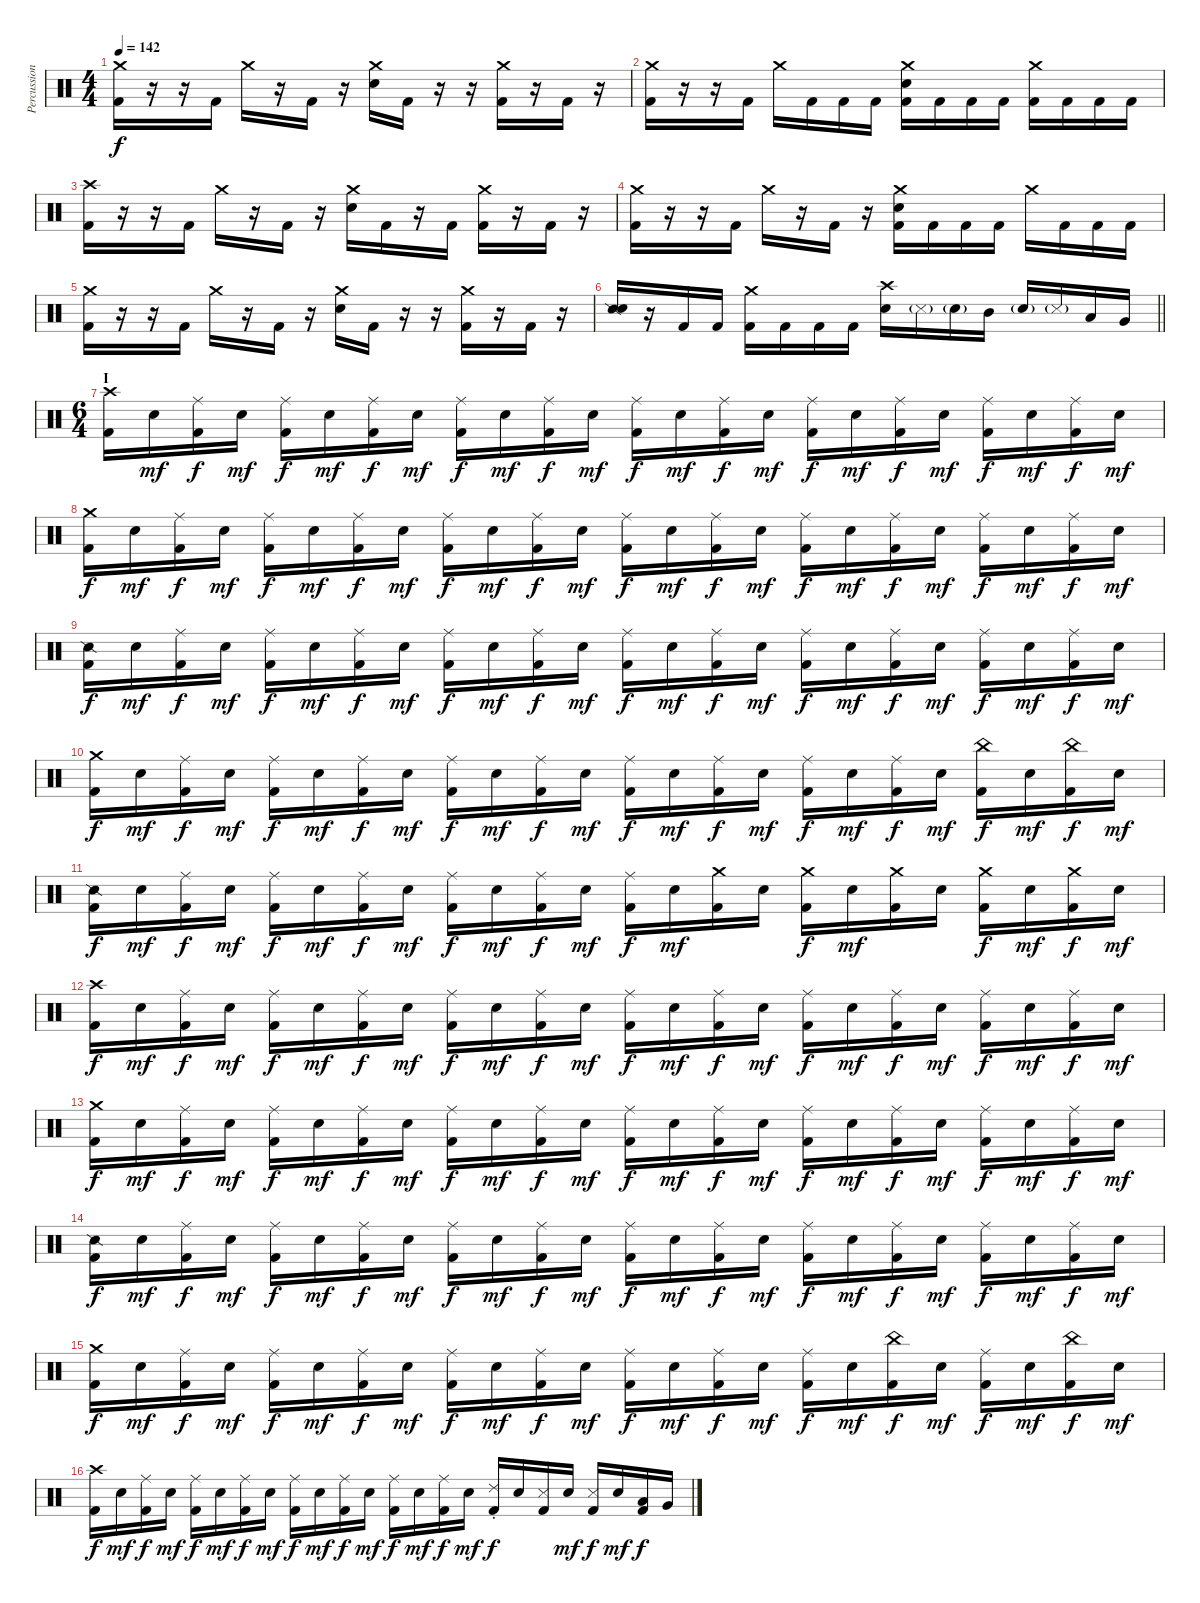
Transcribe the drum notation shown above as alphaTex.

\track ("Percussion" "Percussion") {instrument percussion}
\staff {score}
\articulation defaults
\ts (4 4)
\tempo 142
\clef neutral
\ks c
("Crash medium (hit)" "Kick (hit) 2").16{dy f} r.16 r.16 "Kick (hit) 2".16 "Crash medium (hit)".16 r.16 "Kick (hit) 2".16 r.16 ("Crash medium (hit)" "Snare (hit) 2").16 "Kick (hit) 2".16 r.16 r.16 ("Crash medium (hit)" "Kick (hit) 2").16 r.16 "Kick (hit) 2".16 r.16 |
("Crash medium (hit)" "Kick (hit) 2").16 r.16 r.16 "Kick (hit) 2".16 "Crash medium (hit)".16 "Kick (hit) 2".16 "Kick (hit) 2".16 "Kick (hit) 2".16 ("Crash medium (hit)" "Snare (hit) 2" "Kick (hit) 2").16 "Kick (hit) 2".16 "Kick (hit) 2".16 "Kick (hit) 2".16 ("Crash medium (hit)" "Kick (hit) 2").16 "Kick (hit) 2".16 "Kick (hit) 2".16 "Kick (hit) 2".16 |
("Crash high (hit)" "Kick (hit) 2").16 r.16 r.16 "Kick (hit) 2".16 "Crash medium (hit)".16 r.16 "Kick (hit) 2".16 r.16 ("Crash medium (hit)" "Snare (hit) 2").16 "Kick (hit) 2".16 r.16 "Kick (hit) 2".16 ("Crash medium (hit)" "Kick (hit) 2").16 r.16 "Kick (hit) 2".16 r.16 |
("Crash medium (hit)" "Kick (hit) 2").16 r.16 r.16 "Kick (hit) 2".16 "Crash medium (hit)".16 r.16 "Kick (hit) 2".16 r.16 ("Crash medium (hit)" "Snare (hit) 2" "Kick (hit) 2").16 "Kick (hit) 2".16 "Kick (hit) 2".16 "Kick (hit) 2".16 "Crash medium (hit)".16 "Kick (hit) 2".16 "Kick (hit) 2".16 "Kick (hit) 2".16 |
("Crash medium (hit)" "Kick (hit) 2").16 r.16 r.16 "Kick (hit) 2".16 "Crash medium (hit)".16 r.16 "Kick (hit) 2".16 r.16 ("Crash medium (hit)" "Snare (hit) 2").16 "Kick (hit) 2".16 r.16 r.16 ("Crash medium (hit)" "Kick (hit) 2").16 r.16 "Kick (hit) 2".16 r.16 |
\barLineRight lightlight
("Snare (side stick) 2" "Snare (hit) 2").16 r.16 "Kick (hit) 2".16 "Kick (hit) 2".16 ("Crash medium (hit)" "Kick (hit) 2").16 "Kick (hit) 2".16 "Kick (hit) 2".16 "Kick (hit) 2".16 ("Crash high (hit)" "Snare (hit) 2").16 "Metronome (hit)"{g}.16 "Snare (hit) 2"{g}.16 "Mid Tom (hit)".16 "Snare (hit) 2"{g}.16 "Metronome (hit)"{g}.16 "Low Tom (hit)".16 "Very Low Tom (hit)".16 |
\ts (6 4)
\section ("" "I")
("Crash high (hit)" "Kick (hit) 2").16 "Snare (hit) 2".16{dy mf} ("Ride (middle)" "Kick (hit) 2").16{dy f} "Snare (hit) 2".16{dy mf} ("Ride (middle)" "Kick (hit) 2").16{dy f} "Snare (hit) 2".16{dy mf} ("Ride (middle)" "Kick (hit) 2").16{dy f} "Snare (hit) 2".16{dy mf} ("Ride (middle)" "Kick (hit) 2").16{dy f} "Snare (hit) 2".16{dy mf} ("Ride (middle)" "Kick (hit) 2").16{dy f} "Snare (hit) 2".16{dy mf} ("Ride (middle)" "Kick (hit) 2").16{dy f} "Snare (hit) 2".16{dy mf} ("Ride (middle)" "Kick (hit) 2").16{dy f} "Snare (hit) 2".16{dy mf} ("Ride (middle)" "Kick (hit) 2").16{dy f} "Snare (hit) 2".16{dy mf} ("Ride (middle)" "Kick (hit) 2").16{dy f} "Snare (hit) 2".16{dy mf} ("Ride (middle)" "Kick (hit) 2").16{dy f} "Snare (hit) 2".16{dy mf} ("Ride (middle)" "Kick (hit) 2").16{dy f} "Snare (hit) 2".16{dy mf} |
("Crash medium (hit)" "Kick (hit) 2").16{dy f} "Snare (hit) 2".16{dy mf} ("Ride (middle)" "Kick (hit) 2").16{dy f} "Snare (hit) 2".16{dy mf} ("Ride (middle)" "Kick (hit) 2").16{dy f} "Snare (hit) 2".16{dy mf} ("Ride (middle)" "Kick (hit) 2").16{dy f} "Snare (hit) 2".16{dy mf} ("Ride (middle)" "Kick (hit) 2").16{dy f} "Snare (hit) 2".16{dy mf} ("Ride (middle)" "Kick (hit) 2").16{dy f} "Snare (hit) 2".16{dy mf} ("Ride (middle)" "Kick (hit) 2").16{dy f} "Snare (hit) 2".16{dy mf} ("Ride (middle)" "Kick (hit) 2").16{dy f} "Snare (hit) 2".16{dy mf} ("Ride (middle)" "Kick (hit) 2").16{dy f} "Snare (hit) 2".16{dy mf} ("Ride (middle)" "Kick (hit) 2").16{dy f} "Snare (hit) 2".16{dy mf} ("Ride (middle)" "Kick (hit) 2").16{dy f} "Snare (hit) 2".16{dy mf} ("Ride (middle)" "Kick (hit) 2").16{dy f} "Snare (hit) 2".16{dy mf} |
("Snare (side stick) 2" "Kick (hit) 2").16{dy f} "Snare (hit) 2".16{dy mf} ("Ride (middle)" "Kick (hit) 2").16{dy f} "Snare (hit) 2".16{dy mf} ("Ride (middle)" "Kick (hit) 2").16{dy f} "Snare (hit) 2".16{dy mf} ("Ride (middle)" "Kick (hit) 2").16{dy f} "Snare (hit) 2".16{dy mf} ("Ride (middle)" "Kick (hit) 2").16{dy f} "Snare (hit) 2".16{dy mf} ("Ride (middle)" "Kick (hit) 2").16{dy f} "Snare (hit) 2".16{dy mf} ("Ride (middle)" "Kick (hit) 2").16{dy f} "Snare (hit) 2".16{dy mf} ("Ride (middle)" "Kick (hit) 2").16{dy f} "Snare (hit) 2".16{dy mf} ("Ride (middle)" "Kick (hit) 2").16{dy f} "Snare (hit) 2".16{dy mf} ("Ride (middle)" "Kick (hit) 2").16{dy f} "Snare (hit) 2".16{dy mf} ("Ride (middle)" "Kick (hit) 2").16{dy f} "Snare (hit) 2".16{dy mf} ("Ride (middle)" "Kick (hit) 2").16{dy f} "Snare (hit) 2".16{dy mf} |
("Crash medium (hit)" "Kick (hit) 2").16{dy f} "Snare (hit) 2".16{dy mf} ("Ride (middle)" "Kick (hit) 2").16{dy f} "Snare (hit) 2".16{dy mf} ("Ride (middle)" "Kick (hit) 2").16{dy f} "Snare (hit) 2".16{dy mf} ("Ride (middle)" "Kick (hit) 2").16{dy f} "Snare (hit) 2".16{dy mf} ("Ride (middle)" "Kick (hit) 2").16{dy f} "Snare (hit) 2".16{dy mf} ("Ride (middle)" "Kick (hit) 2").16{dy f} "Snare (hit) 2".16{dy mf} ("Ride (middle)" "Kick (hit) 2").16{dy f} "Snare (hit) 2".16{dy mf} ("Ride (middle)" "Kick (hit) 2").16{dy f} "Snare (hit) 2".16{dy mf} ("Ride (middle)" "Kick (hit) 2").16{dy f} "Snare (hit) 2".16{dy mf} ("Ride (middle)" "Kick (hit) 2").16{dy f} "Snare (hit) 2".16{dy mf} ("China (hit)" "Kick (hit) 2").16{dy f} "Snare (hit) 2".16{dy mf} ("China (hit)" "Kick (hit) 2").16{dy f} "Snare (hit) 2".16{dy mf} |
("Snare (side stick) 2" "Kick (hit) 2").16{dy f} "Snare (hit) 2".16{dy mf} ("Ride (middle)" "Kick (hit) 2").16{dy f} "Snare (hit) 2".16{dy mf} ("Ride (middle)" "Kick (hit) 2").16{dy f} "Snare (hit) 2".16{dy mf} ("Ride (middle)" "Kick (hit) 2").16{dy f} "Snare (hit) 2".16{dy mf} ("Ride (middle)" "Kick (hit) 2").16{dy f} "Snare (hit) 2".16{dy mf} ("Ride (middle)" "Kick (hit) 2").16{dy f} "Snare (hit) 2".16{dy mf} ("Ride (middle)" "Kick (hit) 2").16{dy f} "Snare (hit) 2".16{dy mf} ("Crash medium (hit)" "Kick (hit) 2").16 "Snare (hit) 2".16 ("Crash medium (hit)" "Kick (hit) 2").16{dy f} "Snare (hit) 2".16{dy mf} ("Crash medium (hit)" "Kick (hit) 2").16 "Snare (hit) 2".16 ("Crash medium (hit)" "Kick (hit) 2").16{dy f} "Snare (hit) 2".16{dy mf} ("Crash medium (hit)" "Kick (hit) 2").16{dy f} "Snare (hit) 2".16{dy mf} |
("Crash high (hit)" "Kick (hit) 2").16{dy f} "Snare (hit) 2".16{dy mf} ("Ride (middle)" "Kick (hit) 2").16{dy f} "Snare (hit) 2".16{dy mf} ("Ride (middle)" "Kick (hit) 2").16{dy f} "Snare (hit) 2".16{dy mf} ("Ride (middle)" "Kick (hit) 2").16{dy f} "Snare (hit) 2".16{dy mf} ("Ride (middle)" "Kick (hit) 2").16{dy f} "Snare (hit) 2".16{dy mf} ("Ride (middle)" "Kick (hit) 2").16{dy f} "Snare (hit) 2".16{dy mf} ("Ride (middle)" "Kick (hit) 2").16{dy f} "Snare (hit) 2".16{dy mf} ("Ride (middle)" "Kick (hit) 2").16{dy f} "Snare (hit) 2".16{dy mf} ("Ride (middle)" "Kick (hit) 2").16{dy f} "Snare (hit) 2".16{dy mf} ("Ride (middle)" "Kick (hit) 2").16{dy f} "Snare (hit) 2".16{dy mf} ("Ride (middle)" "Kick (hit) 2").16{dy f} "Snare (hit) 2".16{dy mf} ("Ride (middle)" "Kick (hit) 2").16{dy f} "Snare (hit) 2".16{dy mf} |
("Crash medium (hit)" "Kick (hit) 2").16{dy f} "Snare (hit) 2".16{dy mf} ("Ride (middle)" "Kick (hit) 2").16{dy f} "Snare (hit) 2".16{dy mf} ("Ride (middle)" "Kick (hit) 2").16{dy f} "Snare (hit) 2".16{dy mf} ("Ride (middle)" "Kick (hit) 2").16{dy f} "Snare (hit) 2".16{dy mf} ("Ride (middle)" "Kick (hit) 2").16{dy f} "Snare (hit) 2".16{dy mf} ("Ride (middle)" "Kick (hit) 2").16{dy f} "Snare (hit) 2".16{dy mf} ("Ride (middle)" "Kick (hit) 2").16{dy f} "Snare (hit) 2".16{dy mf} ("Ride (middle)" "Kick (hit) 2").16{dy f} "Snare (hit) 2".16{dy mf} ("Ride (middle)" "Kick (hit) 2").16{dy f} "Snare (hit) 2".16{dy mf} ("Ride (middle)" "Kick (hit) 2").16{dy f} "Snare (hit) 2".16{dy mf} ("Ride (middle)" "Kick (hit) 2").16{dy f} "Snare (hit) 2".16{dy mf} ("Ride (middle)" "Kick (hit) 2").16{dy f} "Snare (hit) 2".16{dy mf} |
("Snare (side stick) 2" "Kick (hit) 2").16{dy f} "Snare (hit) 2".16{dy mf} ("Ride (middle)" "Kick (hit) 2").16{dy f} "Snare (hit) 2".16{dy mf} ("Ride (middle)" "Kick (hit) 2").16{dy f} "Snare (hit) 2".16{dy mf} ("Ride (middle)" "Kick (hit) 2").16{dy f} "Snare (hit) 2".16{dy mf} ("Ride (middle)" "Kick (hit) 2").16{dy f} "Snare (hit) 2".16{dy mf} ("Ride (middle)" "Kick (hit) 2").16{dy f} "Snare (hit) 2".16{dy mf} ("Ride (middle)" "Kick (hit) 2").16{dy f} "Snare (hit) 2".16{dy mf} ("Ride (middle)" "Kick (hit) 2").16{dy f} "Snare (hit) 2".16{dy mf} ("Ride (middle)" "Kick (hit) 2").16{dy f} "Snare (hit) 2".16{dy mf} ("Ride (middle)" "Kick (hit) 2").16{dy f} "Snare (hit) 2".16{dy mf} ("Ride (middle)" "Kick (hit) 2").16{dy f} "Snare (hit) 2".16{dy mf} ("Ride (middle)" "Kick (hit) 2").16{dy f} "Snare (hit) 2".16{dy mf} |
("Crash medium (hit)" "Kick (hit) 2").16{dy f} "Snare (hit) 2".16{dy mf} ("Ride (middle)" "Kick (hit) 2").16{dy f} "Snare (hit) 2".16{dy mf} ("Ride (middle)" "Kick (hit) 2").16{dy f} "Snare (hit) 2".16{dy mf} ("Ride (middle)" "Kick (hit) 2").16{dy f} "Snare (hit) 2".16{dy mf} ("Ride (middle)" "Kick (hit) 2").16{dy f} "Snare (hit) 2".16{dy mf} ("Ride (middle)" "Kick (hit) 2").16{dy f} "Snare (hit) 2".16{dy mf} ("Ride (middle)" "Kick (hit) 2").16{dy f} "Snare (hit) 2".16{dy mf} ("Ride (middle)" "Kick (hit) 2").16{dy f} "Snare (hit) 2".16{dy mf} ("Ride (middle)" "Kick (hit) 2").16{dy f} "Snare (hit) 2".16{dy mf} ("China (hit)" "Kick (hit) 2").16{dy f} "Snare (hit) 2".16{dy mf} ("Ride (middle)" "Kick (hit) 2").16{dy f} "Snare (hit) 2".16{dy mf} ("China (hit)" "Kick (hit) 2").16{dy f} "Snare (hit) 2".16{dy mf} |
("Crash high (hit)" "Kick (hit) 2").16{dy f} "Snare (hit) 2".16{dy mf} ("Ride (middle)" "Kick (hit) 2").16{dy f} "Snare (hit) 2".16{dy mf} ("Ride (middle)" "Kick (hit) 2").16{dy f} "Snare (hit) 2".16{dy mf} ("Ride (middle)" "Kick (hit) 2").16{dy f} "Snare (hit) 2".16{dy mf} ("Ride (middle)" "Kick (hit) 2").16{dy f} "Snare (hit) 2".16{dy mf} ("Ride (middle)" "Kick (hit) 2").16{dy f} "Snare (hit) 2".16{dy mf} ("Ride (middle)" "Kick (hit) 2").16{dy f} "Snare (hit) 2".16{dy mf} ("Ride (middle)" "Kick (hit) 2").16{dy f} "Snare (hit) 2".16{dy mf} ("Ride (choke) 2" "Kick (hit) 2").16{dy f} "Snare (hit) 2".16 ("Metronome (hit)" "Kick (hit) 2").16 "Snare (hit) 2".16{dy mf} ("Metronome (hit)" "Kick (hit) 2").16{dy f} "Snare (hit) 2".16{dy mf} ("Low Tom (hit)" "Kick (hit) 2").16{dy f} "Very Low Tom (hit)".16
